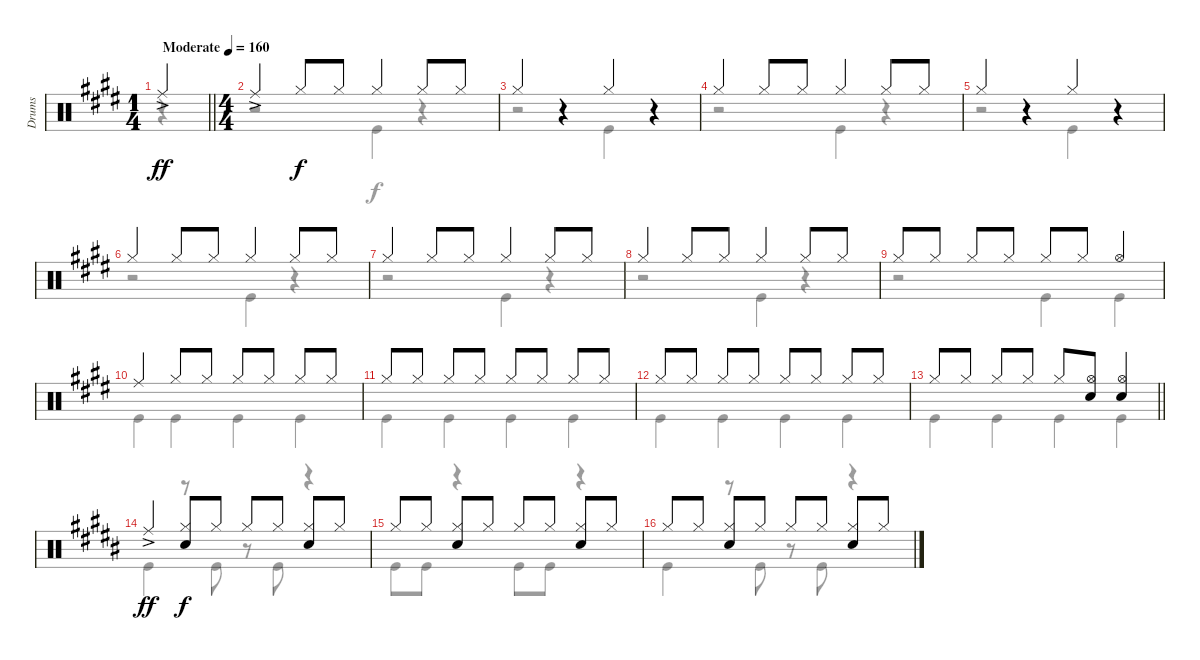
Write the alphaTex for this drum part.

\track ("Drums" "Drums") {instrument percussion}
\staff {score}
\articulation defaults
\voice
\ts (1 4)
\tempo (160 "Moderate")
\clef neutral
\barLineRight lightlight
\ks e "Ride (middle)"{ac}.4{dy ff}
|
\ts (4 4)
"Ride (middle)"{ac}.4 "Hi-Hat (closed)".8{dy f} "Hi-Hat (closed)".8 "Hi-Hat (closed)".4 "Hi-Hat (closed)".8 "Hi-Hat (closed)".8 |
"Hi-Hat (closed)".4 r.4 "Hi-Hat (closed)".4 r.4 |
"Hi-Hat (closed)".4 "Hi-Hat (closed)".8 "Hi-Hat (closed)".8 "Hi-Hat (closed)".4 "Hi-Hat (closed)".8 "Hi-Hat (closed)".8 |
"Hi-Hat (closed)".4 r.4 "Hi-Hat (closed)".4 r.4 |
"Hi-Hat (closed)".4 "Hi-Hat (closed)".8 "Hi-Hat (closed)".8 "Hi-Hat (closed)".4 "Hi-Hat (closed)".8 "Hi-Hat (closed)".8 |
"Hi-Hat (closed)".4 "Hi-Hat (closed)".8 "Hi-Hat (closed)".8 "Hi-Hat (closed)".4 "Hi-Hat (closed)".8 "Hi-Hat (closed)".8 |
"Hi-Hat (closed)".4 "Hi-Hat (closed)".8 "Hi-Hat (closed)".8 "Hi-Hat (closed)".4 "Hi-Hat (closed)".8 "Hi-Hat (closed)".8 |
"Hi-Hat (closed)".8 "Hi-Hat (closed)".8 "Hi-Hat (closed)".8 "Hi-Hat (closed)".8 "Hi-Hat (closed)".8 "Hi-Hat (closed)".8 "Hi-Hat (open)".4 |
"Ride (middle)".4 "Hi-Hat (closed)".8 "Hi-Hat (closed)".8 "Hi-Hat (closed)".8 "Hi-Hat (closed)".8 "Hi-Hat (closed)".8 "Hi-Hat (closed)".8 |
"Hi-Hat (closed)".8 "Hi-Hat (closed)".8 "Hi-Hat (closed)".8 "Hi-Hat (closed)".8 "Hi-Hat (closed)".8 "Hi-Hat (closed)".8 "Hi-Hat (closed)".8 "Hi-Hat (closed)".8 |
"Hi-Hat (closed)".8 "Hi-Hat (closed)".8 "Hi-Hat (closed)".8 "Hi-Hat (closed)".8 "Hi-Hat (closed)".8 "Hi-Hat (closed)".8 "Hi-Hat (closed)".8 "Hi-Hat (closed)".8 |
\barLineRight lightlight "Hi-Hat (closed)".8 "Hi-Hat (closed)".8 "Hi-Hat (closed)".8 "Hi-Hat (closed)".8 "Hi-Hat (closed)".8
("Hi-Hat (open)" "Snare (hit) 2").8 ("Hi-Hat (open)" "Snare (hit) 2").4 |
\ks b "Ride (middle)"{ac}.4{dy ff}
("Hi-Hat (closed)" "Snare (hit) 2").8{dy f} "Hi-Hat (closed)".8 "Hi-Hat (closed)".8 "Hi-Hat (closed)".8 ("Hi-Hat (closed)" "Snare (hit) 2").8 "Hi-Hat (closed)".8 |
"Hi-Hat (closed)".8 "Hi-Hat (closed)".8 ("Hi-Hat (closed)" "Snare (hit) 2").8 "Hi-Hat (closed)".8 "Hi-Hat (closed)".8 "Hi-Hat (closed)".8 ("Hi-Hat (closed)" "Snare (hit) 2").8 "Hi-Hat (closed)".8 |
"Hi-Hat (closed)".8 "Hi-Hat (closed)".8 ("Hi-Hat (closed)" "Snare (hit) 2").8 "Hi-Hat (closed)".8 "Hi-Hat (closed)".8 "Hi-Hat (closed)".8 ("Hi-Hat (closed)" "Snare (hit) 2").8 "Hi-Hat (closed)".8
\voice
\clef neutral
\ottava regular
\simile none
\barLineRight lightlight
\ks e
r.4{dy f} |
r.2 "Kick (hit)".4 r.4 |
r.2 "Kick (hit)".4 r.4 |
r.2 "Kick (hit)".4 r.4 |
r.2 "Kick (hit)".4 r.4 |
r.2 "Kick (hit)".4 r.4 |
r.2 "Kick (hit)".4 r.4 |
r.2 "Kick (hit)".4 r.4 |
r.2 "Kick (hit)".4 "Kick (hit)".4 |
"Kick (hit)".4 "Kick (hit)".4 "Kick (hit)".4 "Kick (hit)".4 |
"Kick (hit)".4 "Kick (hit)".4 "Kick (hit)".4 "Kick (hit)".4 |
"Kick (hit)".4 "Kick (hit)".4 "Kick (hit)".4 "Kick (hit)".4 |
\barLineRight lightlight "Kick (hit)".4 "Kick (hit)".4 "Kick (hit)".4 "Kick (hit)".4
|
\ks b "Kick (hit)".4
r.8 "Kick (hit)".8 r.8 "Kick (hit)".8 r.4 |
"Kick (hit)".8 "Kick (hit)".8 r.4 "Kick (hit)".8 "Kick (hit)".8 r.4 |
"Kick (hit)".4 r.8 "Kick (hit)".8 r.8 "Kick (hit)".8 r.4
